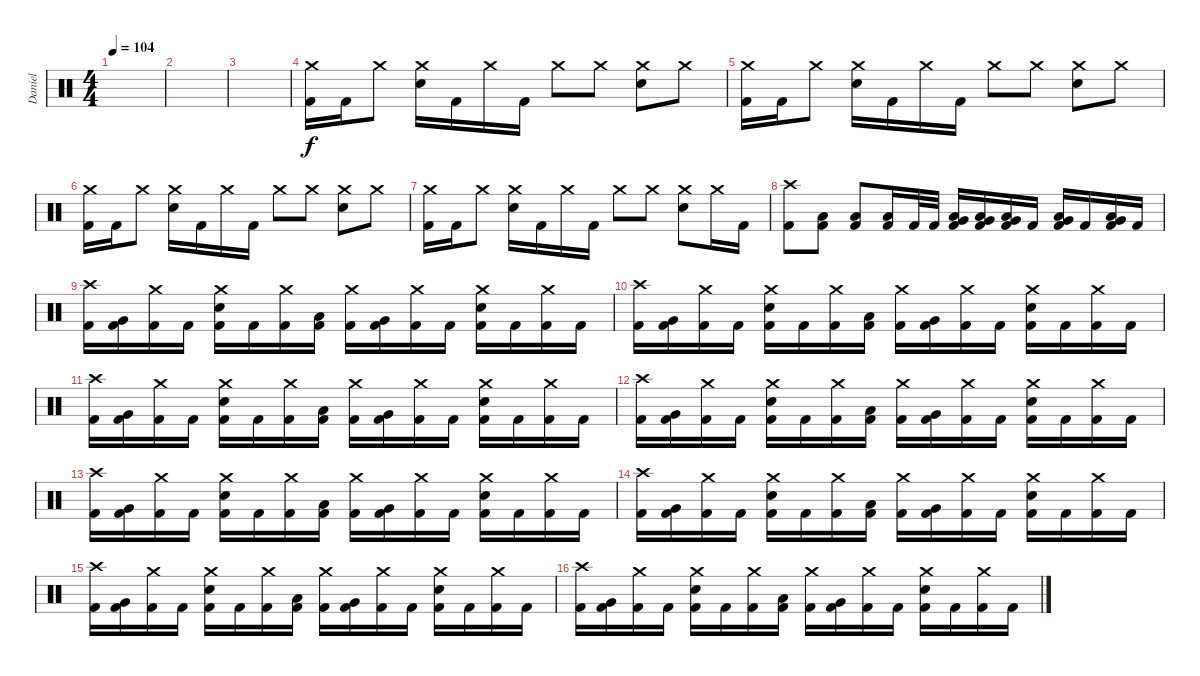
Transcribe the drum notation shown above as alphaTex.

\track ("Daniel" "Daniel") {instrument percussion}
\staff {score}
\articulation defaults
\ts (4 4)
\tempo 104
\clef neutral
\ks c
|
|
|
("Crash medium (hit)" "Kick (hit) 2").16 "Kick (hit) 2".16 "Crash medium (hit)".8 ("Crash medium (hit)" "Snare (hit) 2").16 "Kick (hit) 2".16 "Crash medium (hit)".16 "Kick (hit) 2".16 "Crash medium (hit)".8 "Crash medium (hit)".8 ("Crash medium (hit)" "Snare (hit) 2").8 "Crash medium (hit)".8 |
("Crash medium (hit)" "Kick (hit) 2").16 "Kick (hit) 2".16 "Crash medium (hit)".8 ("Crash medium (hit)" "Snare (hit) 2").16 "Kick (hit) 2".16 "Crash medium (hit)".16 "Kick (hit) 2".16 "Crash medium (hit)".8 "Crash medium (hit)".8 ("Crash medium (hit)" "Snare (hit) 2").8 "Crash medium (hit)".8 |
("Crash medium (hit)" "Kick (hit) 2").16 "Kick (hit) 2".16 "Crash medium (hit)".8 ("Crash medium (hit)" "Snare (hit) 2").16 "Kick (hit) 2".16 "Crash medium (hit)".16 "Kick (hit) 2".16 "Crash medium (hit)".8 "Crash medium (hit)".8 ("Crash medium (hit)" "Snare (hit) 2").8 "Crash medium (hit)".8 |
("Crash medium (hit)" "Kick (hit) 2").16 "Kick (hit) 2".16 "Crash medium (hit)".8 ("Crash medium (hit)" "Snare (hit) 2").16 "Kick (hit) 2".16 "Crash medium (hit)".16 "Kick (hit) 2".16 "Crash medium (hit)".8 "Crash medium (hit)".8 ("Crash medium (hit)" "Snare (hit) 2").8 "Crash medium (hit)".16 "Kick (hit) 2".16 |
("Crash high (hit)" "Kick (hit) 2").8 ("Low Floor Tom (hit)" "Kick (hit) 2").8 ("Low Floor Tom (hit)" "Kick (hit) 2").8 ("Low Floor Tom (hit)" "Kick (hit) 2").16 "Kick (hit) 2".32 "Kick (hit) 2".32 ("Low Tom (hit)" "Very Low Tom (hit)" "Kick (hit) 2").16 ("Low Tom (hit)" "Very Low Tom (hit)" "Kick (hit) 2").16 ("Low Tom (hit)" "Very Low Tom (hit)" "Kick (hit) 2").16 "Kick (hit) 2".16 ("Low Tom (hit)" "Very Low Tom (hit)" "Kick (hit) 2").16 "Kick (hit) 2".16 ("Very Low Tom (hit)" "Low Floor Tom (hit)" "Kick (hit) 2").16 "Kick (hit) 2".16 |
("Crash high (hit)" "Kick (hit) 2").16 ("Very Low Tom (hit)" "Kick (hit) 2").16 ("Crash medium (hit)" "Kick (hit) 2").16 "Kick (hit) 2".16 ("Crash medium (hit)" "Snare (hit) 2" "Kick (hit) 2").16 "Kick (hit) 2".16 ("Crash medium (hit)" "Kick (hit) 2").16 ("Low Tom (hit)" "Kick (hit) 2").16 ("Crash medium (hit)" "Kick (hit) 2").16 ("Very Low Tom (hit)" "Kick (hit) 2").16 ("Crash medium (hit)" "Kick (hit) 2").16 "Kick (hit) 2".16 ("Crash medium (hit)" "Snare (hit) 2" "Kick (hit) 2").16 "Kick (hit) 2".16 ("Crash medium (hit)" "Kick (hit) 2").16 "Kick (hit) 2".16 |
("Crash high (hit)" "Kick (hit) 2").16 ("Very Low Tom (hit)" "Kick (hit) 2").16 ("Crash medium (hit)" "Kick (hit) 2").16 "Kick (hit) 2".16 ("Crash medium (hit)" "Snare (hit) 2" "Kick (hit) 2").16 "Kick (hit) 2".16 ("Crash medium (hit)" "Kick (hit) 2").16 ("Low Tom (hit)" "Kick (hit) 2").16 ("Crash medium (hit)" "Kick (hit) 2").16 ("Very Low Tom (hit)" "Kick (hit) 2").16 ("Crash medium (hit)" "Kick (hit) 2").16 "Kick (hit) 2".16 ("Crash medium (hit)" "Snare (hit) 2" "Kick (hit) 2").16 "Kick (hit) 2".16 ("Crash medium (hit)" "Kick (hit) 2").16 "Kick (hit) 2".16 |
("Crash high (hit)" "Kick (hit) 2").16 ("Very Low Tom (hit)" "Kick (hit) 2").16 ("Crash medium (hit)" "Kick (hit) 2").16 "Kick (hit) 2".16 ("Crash medium (hit)" "Snare (hit) 2" "Kick (hit) 2").16 "Kick (hit) 2".16 ("Crash medium (hit)" "Kick (hit) 2").16 ("Low Tom (hit)" "Kick (hit) 2").16 ("Crash medium (hit)" "Kick (hit) 2").16 ("Very Low Tom (hit)" "Kick (hit) 2").16 ("Crash medium (hit)" "Kick (hit) 2").16 "Kick (hit) 2".16 ("Crash medium (hit)" "Snare (hit) 2" "Kick (hit) 2").16 "Kick (hit) 2".16 ("Crash medium (hit)" "Kick (hit) 2").16 "Kick (hit) 2".16 |
("Crash high (hit)" "Kick (hit) 2").16 ("Very Low Tom (hit)" "Kick (hit) 2").16 ("Crash medium (hit)" "Kick (hit) 2").16 "Kick (hit) 2".16 ("Crash medium (hit)" "Snare (hit) 2" "Kick (hit) 2").16 "Kick (hit) 2".16 ("Crash medium (hit)" "Kick (hit) 2").16 ("Low Tom (hit)" "Kick (hit) 2").16 ("Crash medium (hit)" "Kick (hit) 2").16 ("Very Low Tom (hit)" "Kick (hit) 2").16 ("Crash medium (hit)" "Kick (hit) 2").16 "Kick (hit) 2".16 ("Crash medium (hit)" "Snare (hit) 2" "Kick (hit) 2").16 "Kick (hit) 2".16 ("Crash medium (hit)" "Kick (hit) 2").16 "Kick (hit) 2".16 |
("Crash high (hit)" "Kick (hit) 2").16 ("Very Low Tom (hit)" "Kick (hit) 2").16 ("Crash medium (hit)" "Kick (hit) 2").16 "Kick (hit) 2".16 ("Crash medium (hit)" "Snare (hit) 2" "Kick (hit) 2").16 "Kick (hit) 2".16 ("Crash medium (hit)" "Kick (hit) 2").16 ("Low Tom (hit)" "Kick (hit) 2").16 ("Crash medium (hit)" "Kick (hit) 2").16 ("Very Low Tom (hit)" "Kick (hit) 2").16 ("Crash medium (hit)" "Kick (hit) 2").16 "Kick (hit) 2".16 ("Crash medium (hit)" "Snare (hit) 2" "Kick (hit) 2").16 "Kick (hit) 2".16 ("Crash medium (hit)" "Kick (hit) 2").16 "Kick (hit) 2".16 |
("Crash high (hit)" "Kick (hit) 2").16 ("Very Low Tom (hit)" "Kick (hit) 2").16 ("Crash medium (hit)" "Kick (hit) 2").16 "Kick (hit) 2".16 ("Crash medium (hit)" "Snare (hit) 2" "Kick (hit) 2").16 "Kick (hit) 2".16 ("Crash medium (hit)" "Kick (hit) 2").16 ("Low Tom (hit)" "Kick (hit) 2").16 ("Crash medium (hit)" "Kick (hit) 2").16 ("Very Low Tom (hit)" "Kick (hit) 2").16 ("Crash medium (hit)" "Kick (hit) 2").16 "Kick (hit) 2".16 ("Crash medium (hit)" "Snare (hit) 2" "Kick (hit) 2").16 "Kick (hit) 2".16 ("Crash medium (hit)" "Kick (hit) 2").16 "Kick (hit) 2".16 |
("Crash high (hit)" "Kick (hit) 2").16 ("Very Low Tom (hit)" "Kick (hit) 2").16 ("Crash medium (hit)" "Kick (hit) 2").16 "Kick (hit) 2".16 ("Crash medium (hit)" "Snare (hit) 2" "Kick (hit) 2").16 "Kick (hit) 2".16 ("Crash medium (hit)" "Kick (hit) 2").16 ("Low Tom (hit)" "Kick (hit) 2").16 ("Crash medium (hit)" "Kick (hit) 2").16 ("Very Low Tom (hit)" "Kick (hit) 2").16 ("Crash medium (hit)" "Kick (hit) 2").16 "Kick (hit) 2".16 ("Crash medium (hit)" "Snare (hit) 2" "Kick (hit) 2").16 "Kick (hit) 2".16 ("Crash medium (hit)" "Kick (hit) 2").16 "Kick (hit) 2".16 |
("Crash high (hit)" "Kick (hit) 2").16 ("Very Low Tom (hit)" "Kick (hit) 2").16 ("Crash medium (hit)" "Kick (hit) 2").16 "Kick (hit) 2".16 ("Crash medium (hit)" "Snare (hit) 2" "Kick (hit) 2").16 "Kick (hit) 2".16 ("Crash medium (hit)" "Kick (hit) 2").16 ("Low Tom (hit)" "Kick (hit) 2").16 ("Crash medium (hit)" "Kick (hit) 2").16 ("Very Low Tom (hit)" "Kick (hit) 2").16 ("Crash medium (hit)" "Kick (hit) 2").16 "Kick (hit) 2".16 ("Crash medium (hit)" "Snare (hit) 2" "Kick (hit) 2").16 "Kick (hit) 2".16 ("Crash medium (hit)" "Kick (hit) 2").16 "Kick (hit) 2".16
